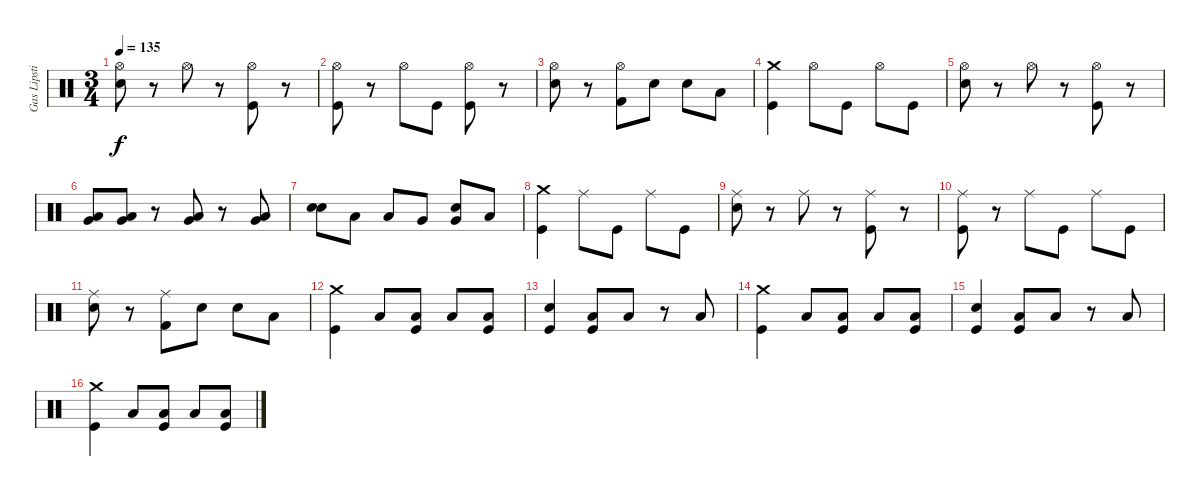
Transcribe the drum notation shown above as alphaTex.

\track ("Gas Lipstick" "Gas Lipsti") {instrument percussion}
\staff {score}
\articulation defaults
\ts (3 4)
\tempo 135
\clef neutral
\ks c
("Hi-Hat (open)" "Snare (hit) 2").8{dy f} r.8 "Hi-Hat (open)".8 r.8 ("Hi-Hat (open)" "Kick (hit)").8 r.8 |
("Hi-Hat (open)" "Kick (hit)").8 r.8 "Hi-Hat (open)".8 "Kick (hit)".8 ("Hi-Hat (open)" "Kick (hit)").8 r.8 |
("Hi-Hat (open)" "Snare (hit) 2").8 r.8 ("Hi-Hat (open)" "Kick (hit) 2").8 "Snare (hit) 2".8 "Snare (hit) 2".8 "Low Tom (hit)".8 |
("Crash medium (hit)" "Kick (hit)").4 "Hi-Hat (open)".8 "Kick (hit)".8 "Hi-Hat (open)".8 "Kick (hit)".8 |
("Hi-Hat (open)" "Snare (hit) 2").8 r.8 "Hi-Hat (open)".8 r.8 ("Hi-Hat (open)" "Kick (hit)").8 r.8 |
("Low Tom (hit)" "Very Low Tom (hit)").8 ("Low Tom (hit)" "Very Low Tom (hit)").8 r.8 ("Low Tom (hit)" "Very Low Tom (hit)").8 r.8 ("Low Tom (hit)" "Very Low Tom (hit)").8 |
("Snare (hit) 2" "Snare (hit) 2").8{bd 60} "Low Tom (hit)".8 "Low Tom (hit)".8 "Very Low Tom (hit)".8 ("Very Low Tom (hit)" "Snare (hit) 2").8{bd 60} "Low Tom (hit)".8 |
("Crash medium (hit)" "Kick (hit)").4 "Ride (middle)".8 "Kick (hit)".8 "Ride (middle)".8 "Kick (hit)".8 |
("Ride (middle)" "Snare (hit) 2").8 r.8 "Ride (middle)".8 r.8 ("Ride (middle)" "Kick (hit)").8 r.8 |
("Ride (middle)" "Kick (hit)").8 r.8 "Ride (middle)".8 "Kick (hit)".8 "Ride (middle)".8 "Kick (hit)".8 |
("Ride (middle)" "Snare (hit) 2").8 r.8 ("Ride (middle)" "Kick (hit) 2").8 "Snare (hit) 2".8 "Snare (hit) 2".8 "Low Tom (hit)".8 |
("Crash medium (hit)" "Kick (hit)").4 "Low Tom (hit)".8 ("Low Tom (hit)" "Kick (hit)").8 "Low Tom (hit)".8 ("Low Tom (hit)" "Kick (hit)").8 |
("Snare (hit) 2" "Kick (hit)").4 ("Low Tom (hit)" "Kick (hit)").8 "Low Tom (hit)".8 r.8 "Low Tom (hit)".8 |
("Crash medium (hit)" "Kick (hit)").4 "Low Tom (hit)".8 ("Low Tom (hit)" "Kick (hit)").8 "Low Tom (hit)".8 ("Low Tom (hit)" "Kick (hit)").8 |
("Snare (hit) 2" "Kick (hit)").4 ("Low Tom (hit)" "Kick (hit)").8 "Low Tom (hit)".8 r.8 "Low Tom (hit)".8 |
("Crash medium (hit)" "Kick (hit)").4 "Low Tom (hit)".8 ("Low Tom (hit)" "Kick (hit)").8 "Low Tom (hit)".8 ("Low Tom (hit)" "Kick (hit)").8
